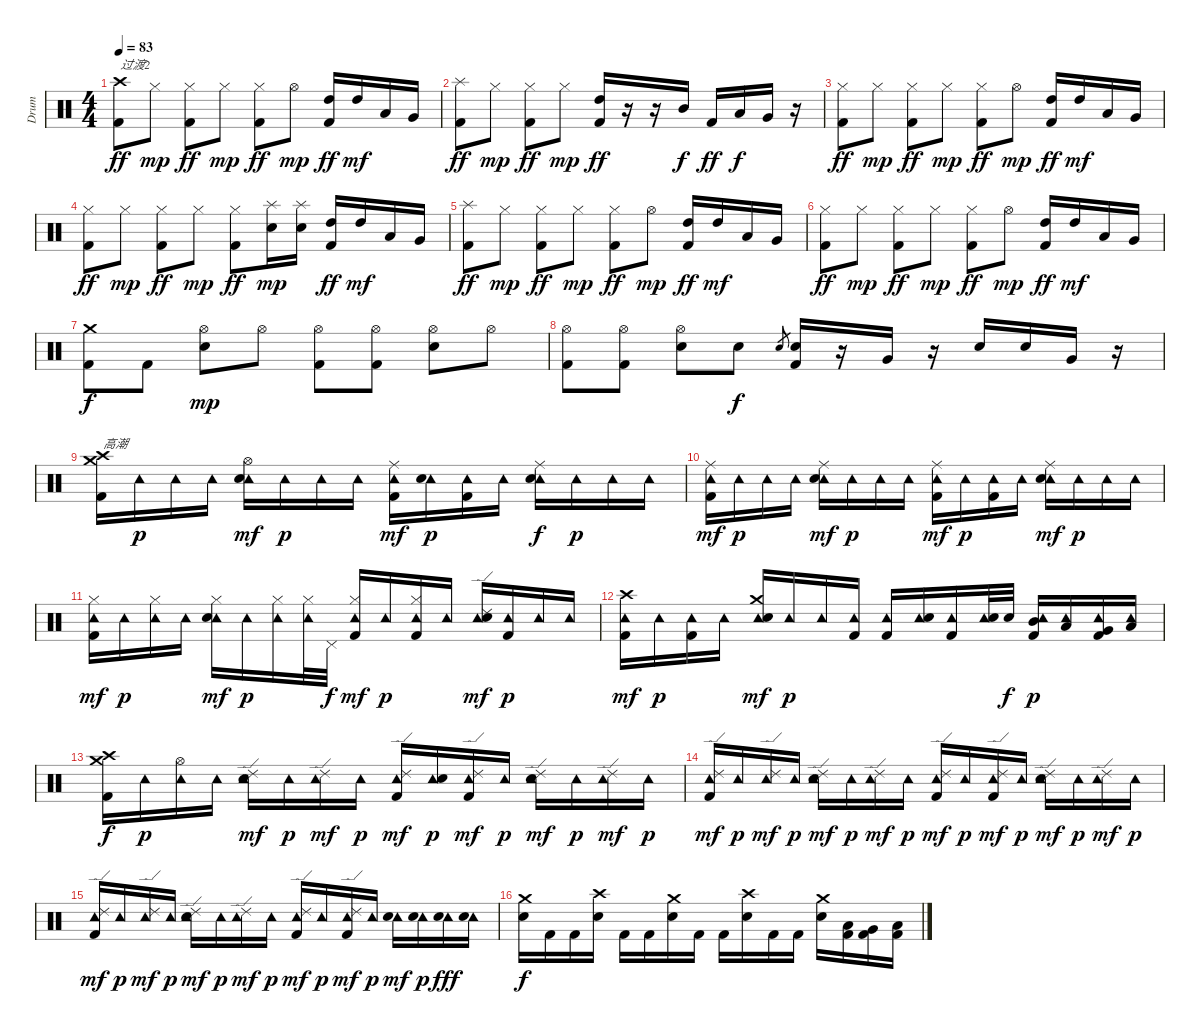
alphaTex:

\track ("Drum" "Drum") {instrument percussion}
\staff {score}
\articulation defaults
\ts (4 4)
\tempo 83
\clef neutral
\ks c
("Crash high (hit)" "Kick (hit) 2").8{txt "过渡2" dy ff} "Hi-Hat (closed)".8{dy mp} ("Hi-Hat (closed)" "Kick (hit) 2").8{dy ff} "Hi-Hat (closed)".8{dy mp} ("Hi-Hat (closed)" "Kick (hit) 2").8{dy ff} "Hi-Hat (open)".8{dy mp} ("High Tom (hit)" "Kick (hit) 2").16{dy ff} "High Tom (hit)".16{dy mf} "Low Tom (hit)".16 "Very Low Tom (hit)".16 |
("Splash (hit)" "Kick (hit) 2").8{dy ff} "Hi-Hat (closed)".8{dy mp} ("Hi-Hat (closed)" "Kick (hit) 2").8{dy ff} "Hi-Hat (closed)".8{dy mp} ("High Tom (hit)" "Kick (hit) 2").16{dy ff} r.16 r.16 "Mid Tom (hit)".16{dy f} "Kick (hit) 2".16{dy ff} "Low Tom (hit)".16{dy f} "Very Low Tom (hit)".16 r.16 |
("Hi-Hat (closed)" "Kick (hit) 2").8{dy ff} "Hi-Hat (closed)".8{dy mp} ("Hi-Hat (closed)" "Kick (hit) 2").8{dy ff} "Hi-Hat (closed)".8{dy mp} ("Hi-Hat (closed)" "Kick (hit) 2").8{dy ff} "Hi-Hat (open)".8{dy mp} ("High Tom (hit)" "Kick (hit) 2").16{dy ff} "High Tom (hit)".16{dy mf} "Low Tom (hit)".16 "Very Low Tom (hit)".16 |
("Hi-Hat (closed)" "Kick (hit) 2").8{dy ff} "Hi-Hat (closed)".8{dy mp} ("Hi-Hat (closed)" "Kick (hit) 2").8{dy ff} "Hi-Hat (closed)".8{dy mp} ("Hi-Hat (closed)" "Kick (hit) 2").8{dy ff} ("Splash (hit)" "Electric Snare (hit)").16{dy mp} ("Splash (hit)" "Electric Snare (hit)").16 ("High Tom (hit)" "Kick (hit) 2").16{dy ff} "High Tom (hit)".16{dy mf} "Low Tom (hit)".16 "Very Low Tom (hit)".16 |
("Splash (hit)" "Kick (hit) 2").8{dy ff} "Hi-Hat (closed)".8{dy mp} ("Hi-Hat (closed)" "Kick (hit) 2").8{dy ff} "Hi-Hat (closed)".8{dy mp} ("Hi-Hat (closed)" "Kick (hit) 2").8{dy ff} "Hi-Hat (open)".8{dy mp} ("High Tom (hit)" "Kick (hit) 2").16{dy ff} "High Tom (hit)".16{dy mf} "Low Tom (hit)".16 "Very Low Tom (hit)".16 |
("Hi-Hat (closed)" "Kick (hit) 2").8{dy ff} "Hi-Hat (closed)".8{dy mp} ("Hi-Hat (closed)" "Kick (hit) 2").8{dy ff} "Hi-Hat (closed)".8{dy mp} ("Hi-Hat (closed)" "Kick (hit) 2").8{dy ff} "Hi-Hat (open)".8{dy mp} ("High Tom (hit)" "Kick (hit) 2").16{dy ff} "High Tom (hit)".16{dy mf} "Low Tom (hit)".16 "Very Low Tom (hit)".16 |
("Crash medium (hit)" "Kick (hit) 2").8{dy f} "Kick (hit) 2".8 ("Hi-Hat (open)" "Electric Snare (hit)").8{dy mp} "Hi-Hat (open)".8 ("Hi-Hat (open)" "Kick (hit) 2").8 ("Hi-Hat (open)" "Kick (hit) 2").8 ("Hi-Hat (open)" "Electric Snare (hit)").8 "Hi-Hat (open)".8 |
("Hi-Hat (open)" "Kick (hit) 2").8 ("Hi-Hat (open)" "Kick (hit) 2").8 ("Hi-Hat (open)" "Electric Snare (hit)").8 "Electric Snare (hit)".8{dy f} "Electric Snare (hit)".8{gr} ("Electric Snare (hit)" "Kick (hit) 2").16 r.16 "Very Low Tom (hit)".16 r.16 "Electric Snare (hit)".16 "Electric Snare (hit)".16 "Very Low Tom (hit)".16 r.16 |
("Crash medium (hit)" "Crash high (hit)" "Kick (hit) 2").16{txt "高潮"} "Tambourine (hit)".16{dy p} "Tambourine (hit)".16 "Tambourine (hit)".16 ("Tambourine (hit)" "Hi-Hat (open)" "Electric Snare (hit)").16{dy mf} "Tambourine (hit)".16{dy p} "Tambourine (hit)".16 "Tambourine (hit)".16 ("Tambourine (hit)" "Ride (middle)" "Kick (hit) 2").16{dy mf} ("Tambourine (hit)" "Electric Snare (hit)").16{dy p} ("Tambourine (hit)" "Kick (hit) 2").16 "Tambourine (hit)".16 ("Tambourine (hit)" "Ride (middle)" "Electric Snare (hit)").16{dy f} "Tambourine (hit)".16{dy p} "Tambourine (hit)".16 "Tambourine (hit)".16 |
("Tambourine (hit)" "Ride (middle)" "Kick (hit) 2").16{dy mf} "Tambourine (hit)".16{dy p} "Tambourine (hit)".16 "Tambourine (hit)".16 ("Tambourine (hit)" "Ride (middle)" "Electric Snare (hit)").16{dy mf} "Tambourine (hit)".16{dy p} "Tambourine (hit)".16 "Tambourine (hit)".16 ("Tambourine (hit)" "Ride (middle)" "Kick (hit) 2").16{dy mf} "Tambourine (hit)".16{dy p} ("Tambourine (hit)" "Kick (hit) 2").16 "Tambourine (hit)".16 ("Tambourine (hit)" "Ride (middle)" "Electric Snare (hit)").16{dy mf} "Tambourine (hit)".16{dy p} "Tambourine (hit)".16 "Tambourine (hit)".16 |
("Tambourine (hit)" "Hi-Hat (closed)" "Kick (hit) 2").16{dy mf} "Tambourine (hit)".16{dy p} ("Tambourine (hit)" "Hi-Hat (closed)").16 "Tambourine (hit)".16 ("Tambourine (hit)" "Hi-Hat (closed)" "Electric Snare (hit)").16{dy mf} "Tambourine (hit)".16{dy p} ("Tambourine (hit)" "Hi-Hat (closed)").16 ("Tambourine (hit)" "Hi-Hat (closed)").32 "Pedal Hi-Hat (hit)".32{dy f} ("Tambourine (hit)" "Hi-Hat (closed)" "Kick (hit) 2").16{dy mf} "Tambourine (hit)".16{dy p} ("Tambourine (hit)" "Hi-Hat (closed)" "Kick (hit) 2").16 "Tambourine (hit)".16 ("Tambourine (hit)" "Ride (edge) 2" "Electric Snare (hit)").16{dy mf} ("Tambourine (hit)" "Kick (hit) 2").16{dy p} "Tambourine (hit)".16 "Tambourine (hit)".16 |
("Tambourine (hit)" "Crash high (hit)" "Kick (hit) 2").16{dy mf} "Tambourine (hit)".16{dy p} ("Tambourine (hit)" "Kick (hit) 2").16 "Tambourine (hit)".16 ("Tambourine (hit)" "Crash medium (hit)" "Electric Snare (hit)").16{dy mf} "Tambourine (hit)".16{dy p} "Tambourine (hit)".16 ("Tambourine (hit)" "Kick (hit) 2").16 ("Tambourine (hit)" "Kick (hit) 2").16 ("Tambourine (hit)" "Electric Snare (hit)").16 ("Tambourine (hit)" "Kick (hit) 2").16 ("Tambourine (hit)" "Electric Snare (hit)").32 "Electric Snare (hit)".32{dy f} ("Tambourine (hit)" "Mid Tom (hit)" "Kick (hit) 2").16{dy p} ("Tambourine (hit)" "Low Tom (hit)").16 ("Tambourine (hit)" "Very Low Tom (hit)" "Kick (hit) 2").16 ("Tambourine (hit)" "Low Floor Tom (hit)").16 |
("Crash high (hit)" "Crash medium (hit)" "Kick (hit) 2").16{dy f} "Tambourine (hit)".16{dy p} ("Tambourine (hit)" "Hi-Hat (open)").16 "Tambourine (hit)".16 ("Tambourine (hit)" "Ride (edge) 2" "Electric Snare (hit)").16{dy mf} "Tambourine (hit)".16{dy p} ("Tambourine (hit)" "Ride (edge) 2").16{dy mf} "Tambourine (hit)".16{dy p} ("Tambourine (hit)" "Ride (edge) 2" "Kick (hit) 2").16{dy mf} ("Tambourine (hit)" "Electric Snare (hit)").16{dy p} ("Tambourine (hit)" "Ride (edge) 2" "Kick (hit) 2").16{dy mf} "Tambourine (hit)".16{dy p} ("Tambourine (hit)" "Ride (edge) 2" "Electric Snare (hit)").16{dy mf} "Tambourine (hit)".16{dy p} ("Tambourine (hit)" "Ride (edge) 2").16{dy mf} "Tambourine (hit)".16{dy p} |
("Tambourine (hit)" "Ride (edge) 2" "Kick (hit) 2").16{dy mf} "Tambourine (hit)".16{dy p} ("Tambourine (hit)" "Ride (edge) 2").16{dy mf} "Tambourine (hit)".16{dy p} ("Tambourine (hit)" "Ride (edge) 2" "Electric Snare (hit)").16{dy mf} "Tambourine (hit)".16{dy p} ("Tambourine (hit)" "Ride (edge) 2").16{dy mf} "Tambourine (hit)".16{dy p} ("Tambourine (hit)" "Ride (edge) 2" "Kick (hit) 2").16{dy mf} "Tambourine (hit)".16{dy p} ("Tambourine (hit)" "Ride (edge) 2" "Kick (hit) 2").16{dy mf} "Tambourine (hit)".16{dy p} ("Tambourine (hit)" "Ride (edge) 2" "Electric Snare (hit)").16{dy mf} "Tambourine (hit)".16{dy p} ("Tambourine (hit)" "Ride (edge) 2").16{dy mf} "Tambourine (hit)".16{dy p} |
("Tambourine (hit)" "Ride (edge) 2" "Kick (hit) 2").16{dy mf} "Tambourine (hit)".16{dy p} ("Tambourine (hit)" "Ride (edge) 2").16{dy mf} "Tambourine (hit)".16{dy p} ("Tambourine (hit)" "Ride (edge) 2" "Electric Snare (hit)").16{dy mf} "Tambourine (hit)".16{dy p} ("Tambourine (hit)" "Ride (edge) 2").16{dy mf} "Tambourine (hit)".16{dy p} ("Tambourine (hit)" "Ride (edge) 2" "Kick (hit) 2").16{dy mf} "Tambourine (hit)".16{dy p} ("Tambourine (hit)" "Ride (edge) 2" "Kick (hit) 2").16{dy mf} "Tambourine (hit)".16{dy p} ("Tambourine (hit)" "Electric Snare (hit)").16{dy mf} ("Tambourine (hit)" "Electric Snare (hit)").16{dy p} ("Tambourine (hit)" "Electric Snare (hit)").16{dy fff} ("Tambourine (hit)" "Electric Snare (hit)").16 |
("Crash medium (hit)" "Electric Snare (hit)").16{dy f} "Kick (hit) 2".16 "Kick (hit) 2".16 ("Crash high (hit)" "Electric Snare (hit)").16 "Kick (hit) 2".16 "Kick (hit) 2".16 ("Crash medium (hit)" "Electric Snare (hit)").16 "Kick (hit) 2".16 "Kick (hit) 2".16 ("Crash high (hit)" "Electric Snare (hit)").16 "Kick (hit) 2".16 "Kick (hit) 2".16 ("Crash medium (hit)" "Electric Snare (hit)").16 ("Low Tom (hit)" "Kick (hit) 2").16 ("Very Low Tom (hit)" "Kick (hit) 2").16 ("Low Floor Tom (hit)" "Kick (hit) 2").16
